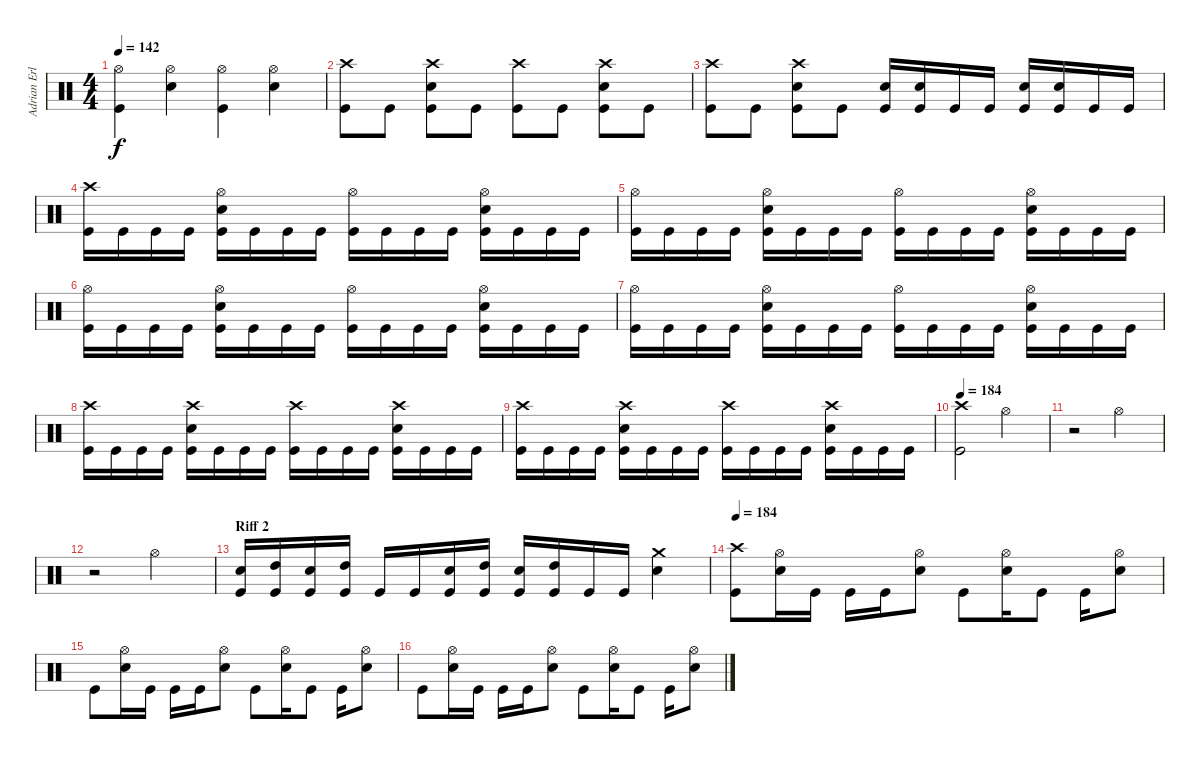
\track ("Adrian Erlandsson (Norseman of the Apoca" "Adrian Erl") {instrument percussion}
\staff {score}
\articulation defaults
\ts (4 4)
\tempo 142
\clef neutral
\ks c
("Hi-Hat (open)" "Kick (hit)").4{dy f} ("Hi-Hat (open)" "Electric Snare (hit)").4 ("Hi-Hat (open)" "Kick (hit)").4 ("Hi-Hat (open)" "Electric Snare (hit)").4 |
("Crash high (hit)" "Kick (hit)").8 "Kick (hit)".8 ("Crash high (hit)" "Electric Snare (hit)" "Kick (hit)").8 "Kick (hit)".8 ("Crash high (hit)" "Kick (hit)").8 "Kick (hit)".8 ("Crash high (hit)" "Electric Snare (hit)" "Kick (hit)").8 "Kick (hit)".8 |
("Crash high (hit)" "Kick (hit)").8 "Kick (hit)".8 ("Crash high (hit)" "Electric Snare (hit)" "Kick (hit)").8 "Kick (hit)".8 ("Electric Snare (hit)" "Kick (hit)").16 ("Electric Snare (hit)" "Kick (hit)").16 "Kick (hit)".16 "Kick (hit)".16 ("Electric Snare (hit)" "Kick (hit)").16 ("Electric Snare (hit)" "Kick (hit)").16 "Kick (hit)".16 "Kick (hit)".16 |
("Crash high (hit)" "Kick (hit)").16 "Kick (hit)".16 "Kick (hit)".16 "Kick (hit)".16 ("Hi-Hat (open)" "Electric Snare (hit)" "Kick (hit)").16 "Kick (hit)".16 "Kick (hit)".16 "Kick (hit)".16 ("Hi-Hat (open)" "Kick (hit)").16 "Kick (hit)".16 "Kick (hit)".16 "Kick (hit)".16 ("Hi-Hat (open)" "Electric Snare (hit)" "Kick (hit)").16 "Kick (hit)".16 "Kick (hit)".16 "Kick (hit)".16 |
("Hi-Hat (open)" "Kick (hit)").16 "Kick (hit)".16 "Kick (hit)".16 "Kick (hit)".16 ("Hi-Hat (open)" "Electric Snare (hit)" "Kick (hit)").16 "Kick (hit)".16 "Kick (hit)".16 "Kick (hit)".16 ("Hi-Hat (open)" "Kick (hit)").16 "Kick (hit)".16 "Kick (hit)".16 "Kick (hit)".16 ("Hi-Hat (open)" "Electric Snare (hit)" "Kick (hit)").16 "Kick (hit)".16 "Kick (hit)".16 "Kick (hit)".16 |
("Hi-Hat (open)" "Kick (hit)").16 "Kick (hit)".16 "Kick (hit)".16 "Kick (hit)".16 ("Hi-Hat (open)" "Electric Snare (hit)" "Kick (hit)").16 "Kick (hit)".16 "Kick (hit)".16 "Kick (hit)".16 ("Hi-Hat (open)" "Kick (hit)").16 "Kick (hit)".16 "Kick (hit)".16 "Kick (hit)".16 ("Hi-Hat (open)" "Electric Snare (hit)" "Kick (hit)").16 "Kick (hit)".16 "Kick (hit)".16 "Kick (hit)".16 |
("Hi-Hat (open)" "Kick (hit)").16 "Kick (hit)".16 "Kick (hit)".16 "Kick (hit)".16 ("Hi-Hat (open)" "Electric Snare (hit)" "Kick (hit)").16 "Kick (hit)".16 "Kick (hit)".16 "Kick (hit)".16 ("Hi-Hat (open)" "Kick (hit)").16 "Kick (hit)".16 "Kick (hit)".16 "Kick (hit)".16 ("Hi-Hat (open)" "Electric Snare (hit)" "Kick (hit)").16 "Kick (hit)".16 "Kick (hit)".16 "Kick (hit)".16 |
("Crash high (hit)" "Kick (hit)").16 "Kick (hit)".16 "Kick (hit)".16 "Kick (hit)".16 ("Crash high (hit)" "Electric Snare (hit)" "Kick (hit)").16 "Kick (hit)".16 "Kick (hit)".16 "Kick (hit)".16 ("Crash high (hit)" "Kick (hit)").16 "Kick (hit)".16 "Kick (hit)".16 "Kick (hit)".16 ("Crash high (hit)" "Electric Snare (hit)" "Kick (hit)").16 "Kick (hit)".16 "Kick (hit)".16 "Kick (hit)".16 |
("Crash high (hit)" "Kick (hit)").16 "Kick (hit)".16 "Kick (hit)".16 "Kick (hit)".16 ("Crash high (hit)" "Electric Snare (hit)" "Kick (hit)").16 "Kick (hit)".16 "Kick (hit)".16 "Kick (hit)".16 ("Crash high (hit)" "Kick (hit)").16 "Kick (hit)".16 "Kick (hit)".16 "Kick (hit)".16 ("Crash high (hit)" "Electric Snare (hit)" "Kick (hit)").16 "Kick (hit)".16 "Kick (hit)".16 "Kick (hit)".16 |
\tempo 184
("Crash high (hit)" "Kick (hit)").2 "Hi-Hat (open)".2 |
r.2 "Hi-Hat (open)".2 |
r.2 "Hi-Hat (open)".2 |
\section ("" "Riff 2")
("Electric Snare (hit)" "Kick (hit)").16 ("High Tom (hit)" "Kick (hit)").16 ("Electric Snare (hit)" "Kick (hit)").16 ("High Tom (hit)" "Kick (hit)").16 "Kick (hit)".16 "Kick (hit)".16 ("Electric Snare (hit)" "Kick (hit)").16 ("High Tom (hit)" "Kick (hit)").16 ("Electric Snare (hit)" "Kick (hit)").16 ("High Tom (hit)" "Kick (hit)").16 "Kick (hit)".16 "Kick (hit)".16 ("Crash medium (hit)" "Electric Snare (hit)").4 |
\tempo 184
("Crash high (hit)" "Kick (hit)").8 ("Hi-Hat (open)" "Electric Snare (hit)").16 "Kick (hit)".16 "Kick (hit)".16 "Kick (hit)".16 ("Hi-Hat (open)" "Electric Snare (hit)").8 "Kick (hit)".8 ("Hi-Hat (open)" "Electric Snare (hit)").16 "Kick (hit)".8 "Kick (hit)".16 ("Hi-Hat (open)" "Electric Snare (hit)").8 |
"Kick (hit)".8 ("Hi-Hat (open)" "Electric Snare (hit)").16 "Kick (hit)".16 "Kick (hit)".16 "Kick (hit)".16 ("Hi-Hat (open)" "Electric Snare (hit)").8 "Kick (hit)".8 ("Hi-Hat (open)" "Electric Snare (hit)").16 "Kick (hit)".8 "Kick (hit)".16 ("Hi-Hat (open)" "Electric Snare (hit)").8 |
"Kick (hit)".8 ("Hi-Hat (open)" "Electric Snare (hit)").16 "Kick (hit)".16 "Kick (hit)".16 "Kick (hit)".16 ("Hi-Hat (open)" "Electric Snare (hit)").8 "Kick (hit)".8 ("Hi-Hat (open)" "Electric Snare (hit)").16 "Kick (hit)".8 "Kick (hit)".16 ("Hi-Hat (open)" "Electric Snare (hit)").8
